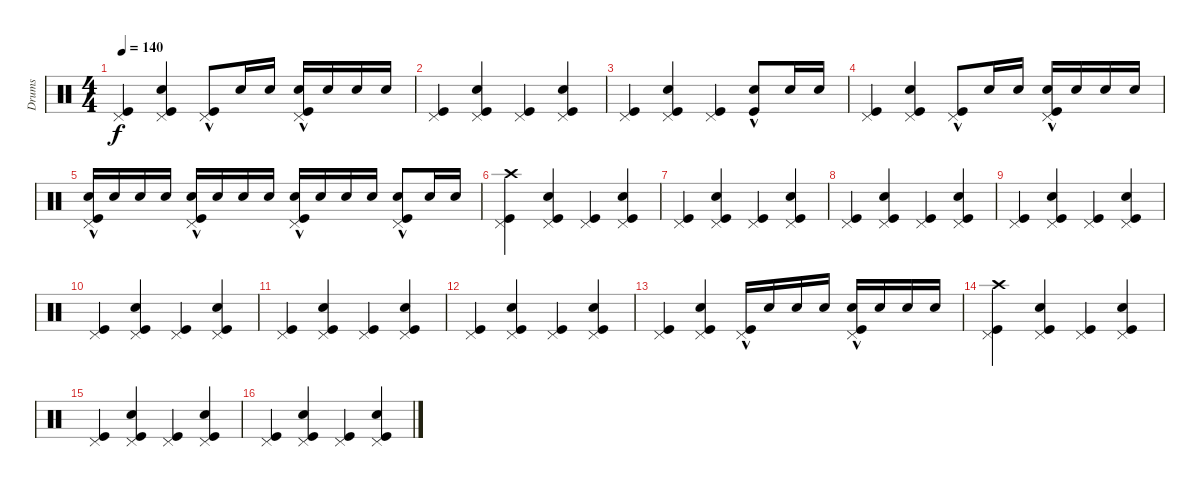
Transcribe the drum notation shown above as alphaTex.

\track ("Drums" "Drums") {instrument percussion}
\staff {score}
\articulation defaults
\ts (4 4)
\tempo 140
\clef neutral
\ks c
("Kick (hit)" "Pedal Hi-Hat (hit)").4{dy f} ("Kick (hit)" "Pedal Hi-Hat (hit)" "Snare (hit) 2").4 ("Kick (hit)"{hac} "Pedal Hi-Hat (hit)").8 "Snare (hit) 2".16 "Snare (hit) 2".16 ("Kick (hit)"{hac} "Pedal Hi-Hat (hit)" "Snare (hit) 2").16 "Snare (hit) 2".16 "Snare (hit) 2".16 "Snare (hit) 2".16 |
("Kick (hit)" "Pedal Hi-Hat (hit)").4 ("Kick (hit)" "Pedal Hi-Hat (hit)" "Snare (hit) 2").4 ("Kick (hit)" "Pedal Hi-Hat (hit)").4 ("Kick (hit)" "Pedal Hi-Hat (hit)" "Snare (hit) 2").4 |
("Kick (hit)" "Pedal Hi-Hat (hit)").4 ("Kick (hit)" "Pedal Hi-Hat (hit)" "Snare (hit) 2").4 ("Kick (hit)" "Pedal Hi-Hat (hit)").4 ("Kick (hit)"{hac} "Snare (hit) 2").8 "Snare (hit) 2".16 "Snare (hit) 2".16 |
("Kick (hit)" "Pedal Hi-Hat (hit)").4 ("Kick (hit)" "Pedal Hi-Hat (hit)" "Snare (hit) 2").4 ("Kick (hit)"{hac} "Pedal Hi-Hat (hit)").8 "Snare (hit) 2".16 "Snare (hit) 2".16 ("Kick (hit)"{hac} "Pedal Hi-Hat (hit)" "Snare (hit) 2").16 "Snare (hit) 2".16 "Snare (hit) 2".16 "Snare (hit) 2".16 |
("Snare (hit) 2" "Pedal Hi-Hat (hit)" "Kick (hit)"{hac}).16 "Snare (hit) 2".16 "Snare (hit) 2".16 "Snare (hit) 2".16 ("Snare (hit) 2" "Pedal Hi-Hat (hit)" "Kick (hit)"{hac}).16 "Snare (hit) 2".16 "Snare (hit) 2".16 "Snare (hit) 2".16 ("Snare (hit) 2" "Pedal Hi-Hat (hit)" "Kick (hit)"{hac}).16 "Snare (hit) 2".16 "Snare (hit) 2".16 "Snare (hit) 2".16 ("Snare (hit) 2" "Pedal Hi-Hat (hit)" "Kick (hit)"{hac}).8 "Snare (hit) 2".16 "Snare (hit) 2".16 |
("Kick (hit)" "Crash high (hit)" "Pedal Hi-Hat (hit)").4 ("Kick (hit)" "Pedal Hi-Hat (hit)" "Snare (hit) 2").4 ("Kick (hit)" "Pedal Hi-Hat (hit)").4 ("Kick (hit)" "Pedal Hi-Hat (hit)" "Snare (hit) 2").4 |
("Kick (hit)" "Pedal Hi-Hat (hit)").4 ("Kick (hit)" "Pedal Hi-Hat (hit)" "Snare (hit) 2").4 ("Kick (hit)" "Pedal Hi-Hat (hit)").4 ("Kick (hit)" "Pedal Hi-Hat (hit)" "Snare (hit) 2").4 |
("Kick (hit)" "Pedal Hi-Hat (hit)").4 ("Kick (hit)" "Pedal Hi-Hat (hit)" "Snare (hit) 2").4 ("Kick (hit)" "Pedal Hi-Hat (hit)").4 ("Kick (hit)" "Pedal Hi-Hat (hit)" "Snare (hit) 2").4 |
("Kick (hit)" "Pedal Hi-Hat (hit)").4 ("Kick (hit)" "Pedal Hi-Hat (hit)" "Snare (hit) 2").4 ("Kick (hit)" "Pedal Hi-Hat (hit)").4 ("Kick (hit)" "Pedal Hi-Hat (hit)" "Snare (hit) 2").4 |
("Kick (hit)" "Pedal Hi-Hat (hit)").4 ("Kick (hit)" "Pedal Hi-Hat (hit)" "Snare (hit) 2").4 ("Kick (hit)" "Pedal Hi-Hat (hit)").4 ("Kick (hit)" "Pedal Hi-Hat (hit)" "Snare (hit) 2").4 |
("Kick (hit)" "Pedal Hi-Hat (hit)").4 ("Kick (hit)" "Pedal Hi-Hat (hit)" "Snare (hit) 2").4 ("Kick (hit)" "Pedal Hi-Hat (hit)").4 ("Kick (hit)" "Pedal Hi-Hat (hit)" "Snare (hit) 2").4 |
("Kick (hit)" "Pedal Hi-Hat (hit)").4 ("Kick (hit)" "Pedal Hi-Hat (hit)" "Snare (hit) 2").4 ("Kick (hit)" "Pedal Hi-Hat (hit)").4 ("Kick (hit)" "Pedal Hi-Hat (hit)" "Snare (hit) 2").4 |
("Kick (hit)" "Pedal Hi-Hat (hit)").4 ("Kick (hit)" "Pedal Hi-Hat (hit)" "Snare (hit) 2").4 ("Kick (hit)"{hac} "Pedal Hi-Hat (hit)").16 "Snare (hit) 2".16 "Snare (hit) 2".16 "Snare (hit) 2".16 ("Kick (hit)"{hac} "Snare (hit) 2" "Pedal Hi-Hat (hit)").16 "Snare (hit) 2".16 "Snare (hit) 2".16 "Snare (hit) 2".16 |
("Kick (hit)" "Crash high (hit)" "Pedal Hi-Hat (hit)").4 ("Kick (hit)" "Pedal Hi-Hat (hit)" "Snare (hit) 2").4 ("Kick (hit)" "Pedal Hi-Hat (hit)").4 ("Kick (hit)" "Pedal Hi-Hat (hit)" "Snare (hit) 2").4 |
("Kick (hit)" "Pedal Hi-Hat (hit)").4 ("Kick (hit)" "Pedal Hi-Hat (hit)" "Snare (hit) 2").4 ("Kick (hit)" "Pedal Hi-Hat (hit)").4 ("Kick (hit)" "Pedal Hi-Hat (hit)" "Snare (hit) 2").4 |
("Kick (hit)" "Pedal Hi-Hat (hit)").4 ("Kick (hit)" "Pedal Hi-Hat (hit)" "Snare (hit) 2").4 ("Kick (hit)" "Pedal Hi-Hat (hit)").4 ("Kick (hit)" "Pedal Hi-Hat (hit)" "Snare (hit) 2").4
